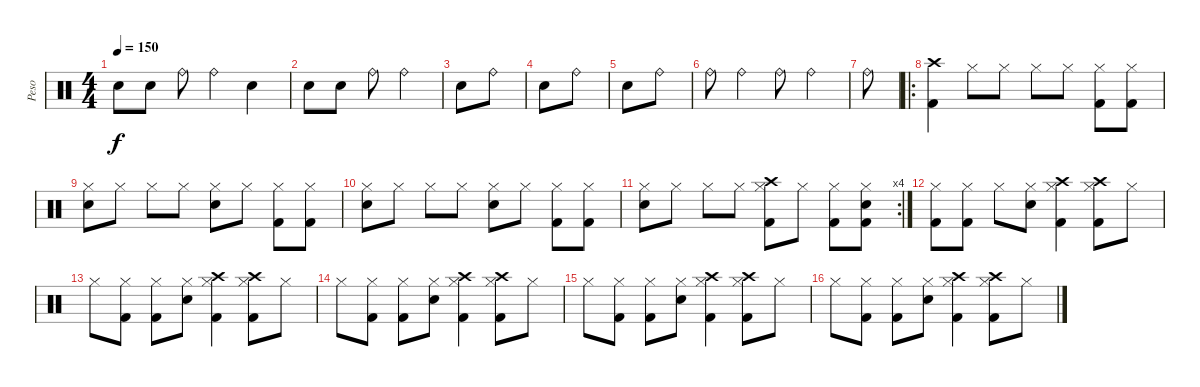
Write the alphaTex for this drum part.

\track ("Peso" "Peso") {instrument percussion}
\staff {score}
\articulation defaults
\ts (4 4)
\tempo 150
\clef neutral
\ks c "Snare (hit)"{x}.8{dy f} "Snare (hit)"{x}.8 "Ride (bell)"{x}.8 "Ride (bell)".4 "Snare (hit)"{x}.4
|
"Snare (hit)"{x}.8 "Snare (hit)"{x}.8 "Ride (bell)".8 "Ride (bell)".4 |
"Snare (hit)"{x}.8 "Ride (bell)".8 |
"Snare (hit)"{x}.8 "Ride (bell)".8 |
"Snare (hit)"{x}.8 "Ride (bell)".8 |
"Ride (bell)"{x}.8 "Ride (bell)"{x}.4 "Ride (bell)".8 "Ride (bell)".4 |
"Ride (bell)".8 |
\ro
("Crash high (hit)" "Kick (hit) 2").4 "Hi-Hat (closed)".8 "Hi-Hat (closed)".8 "Hi-Hat (closed)".8 "Hi-Hat (closed)".8 ("Hi-Hat (closed)" "Kick (hit) 2").8 ("Hi-Hat (closed)" "Kick (hit) 2").8 |
("Hi-Hat (closed)" "Snare (hit) 2").8 "Hi-Hat (closed)".8 "Hi-Hat (closed)".8 "Hi-Hat (closed)".8 ("Hi-Hat (closed)" "Snare (hit) 2").8 "Hi-Hat (closed)".8 ("Hi-Hat (closed)" "Kick (hit) 2").8 ("Hi-Hat (closed)" "Kick (hit) 2").8 |
("Hi-Hat (closed)" "Snare (hit) 2").8 "Hi-Hat (closed)".8 "Hi-Hat (closed)".8 "Hi-Hat (closed)".8 ("Hi-Hat (closed)" "Snare (hit) 2").8 "Hi-Hat (closed)".8 ("Hi-Hat (closed)" "Kick (hit) 2").8 ("Hi-Hat (closed)" "Kick (hit) 2").8 |
\rc 4
("Hi-Hat (closed)" "Snare (hit) 2").8 "Hi-Hat (closed)".8 "Hi-Hat (closed)".8 "Hi-Hat (closed)".8 ("Crash high (hit)" "Hi-Hat (closed)" "Kick (hit) 2").8 "Hi-Hat (closed)".8 ("Hi-Hat (closed)" "Kick (hit) 2").8 ("Hi-Hat (closed)" "Snare (hit) 2" "Kick (hit) 2").8 |
("Hi-Hat (closed)" "Kick (hit) 2").8 ("Hi-Hat (closed)" "Kick (hit) 2").8 "Hi-Hat (closed)".8 ("Hi-Hat (closed)" "Snare (hit) 2").8 ("Crash high (hit)" "Hi-Hat (closed)" "Kick (hit) 2").4 ("Crash high (hit)" "Hi-Hat (closed)" "Kick (hit) 2").8 "Hi-Hat (closed)".8 |
"Hi-Hat (closed)".8 ("Hi-Hat (closed)" "Kick (hit) 2").8 ("Hi-Hat (closed)" "Kick (hit) 2").8 ("Hi-Hat (closed)" "Snare (hit) 2").8 ("Crash high (hit)" "Hi-Hat (closed)" "Kick (hit) 2").4 ("Crash high (hit)" "Hi-Hat (closed)" "Kick (hit) 2").8 "Hi-Hat (closed)".8 |
"Hi-Hat (closed)".8 ("Hi-Hat (closed)" "Kick (hit) 2").8 ("Hi-Hat (closed)" "Kick (hit) 2").8 ("Hi-Hat (closed)" "Snare (hit) 2").8 ("Crash high (hit)" "Hi-Hat (closed)" "Kick (hit) 2").4 ("Crash high (hit)" "Hi-Hat (closed)" "Kick (hit) 2").8 "Hi-Hat (closed)".8 |
"Hi-Hat (closed)".8 ("Hi-Hat (closed)" "Kick (hit) 2").8 ("Hi-Hat (closed)" "Kick (hit) 2").8 ("Hi-Hat (closed)" "Snare (hit) 2").8 ("Crash high (hit)" "Hi-Hat (closed)" "Kick (hit) 2").4 ("Crash high (hit)" "Hi-Hat (closed)" "Kick (hit) 2").8 "Hi-Hat (closed)".8 |
"Hi-Hat (closed)".8 ("Hi-Hat (closed)" "Kick (hit) 2").8 ("Hi-Hat (closed)" "Kick (hit) 2").8 ("Hi-Hat (closed)" "Snare (hit) 2").8 ("Crash high (hit)" "Hi-Hat (closed)" "Kick (hit) 2").4 ("Crash high (hit)" "Hi-Hat (closed)" "Kick (hit) 2").8 "Hi-Hat (closed)".8
